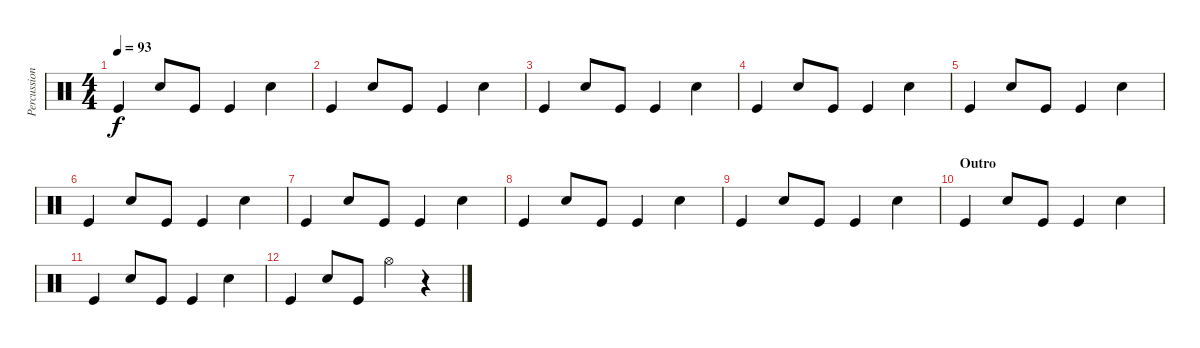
\track ("Percussion" "Percussion") {instrument percussion}
\staff {score}
\articulation defaults
\ts (4 4)
\tempo 93
\clef neutral
\ks c "Kick (hit)".4{dy f} "Electric Snare (hit)".8 "Kick (hit)".8 "Kick (hit)".4 "Electric Snare (hit)".4
|
"Kick (hit)".4 "Electric Snare (hit)".8 "Kick (hit)".8 "Kick (hit)".4 "Electric Snare (hit)".4 |
"Kick (hit)".4 "Electric Snare (hit)".8 "Kick (hit)".8 "Kick (hit)".4 "Electric Snare (hit)".4 |
"Kick (hit)".4 "Electric Snare (hit)".8 "Kick (hit)".8 "Kick (hit)".4 "Electric Snare (hit)".4 |
"Kick (hit)".4 "Electric Snare (hit)".8 "Kick (hit)".8 "Kick (hit)".4 "Electric Snare (hit)".4 |
"Kick (hit)".4 "Electric Snare (hit)".8 "Kick (hit)".8 "Kick (hit)".4 "Electric Snare (hit)".4 |
"Kick (hit)".4 "Electric Snare (hit)".8 "Kick (hit)".8 "Kick (hit)".4 "Electric Snare (hit)".4 |
"Kick (hit)".4 "Electric Snare (hit)".8 "Kick (hit)".8 "Kick (hit)".4 "Electric Snare (hit)".4 |
"Kick (hit)".4 "Electric Snare (hit)".8 "Kick (hit)".8 "Kick (hit)".4 "Electric Snare (hit)".4 |
\section ("" "Outro")
"Kick (hit)".4 "Electric Snare (hit)".8 "Kick (hit)".8 "Kick (hit)".4 "Electric Snare (hit)".4 |
"Kick (hit)".4 "Electric Snare (hit)".8 "Kick (hit)".8 "Kick (hit)".4 "Electric Snare (hit)".4 |
"Kick (hit)".4 "Electric Snare (hit)".8 "Kick (hit)".8 "Hi-Hat (open)".4{volume 4} r.4
